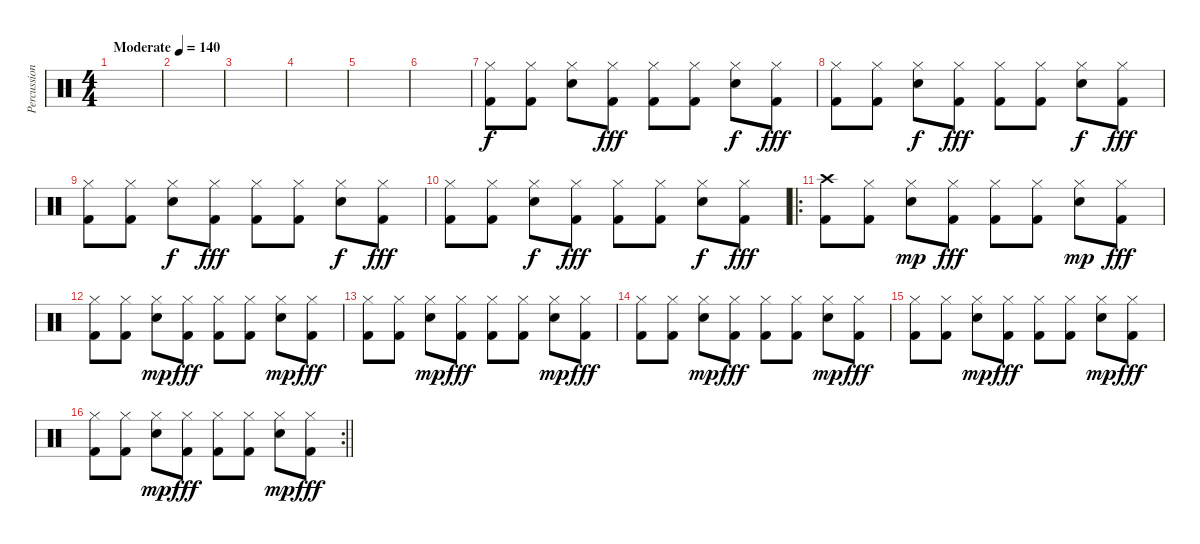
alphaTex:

\track ("Percussioni" "Percussion") {instrument percussion}
\staff {score}
\articulation defaults
\ts (4 4)
\tempo (140 "Moderate")
\clef neutral
\ks c
|
|
|
|
|
|
("Hi-Hat (closed)" "Kick (hit) 2").8 ("Hi-Hat (closed)" "Kick (hit) 2").8 ("Hi-Hat (closed)" "Snare (hit) 2").8{dy f} ("Hi-Hat (closed)" "Kick (hit) 2").8{dy fff} ("Hi-Hat (closed)" "Kick (hit) 2").8 ("Hi-Hat (closed)" "Kick (hit) 2").8 ("Hi-Hat (closed)" "Snare (hit) 2").8{dy f} ("Hi-Hat (closed)" "Kick (hit) 2").8{dy fff} |
("Hi-Hat (closed)" "Kick (hit) 2").8 ("Hi-Hat (closed)" "Kick (hit) 2").8 ("Hi-Hat (closed)" "Snare (hit) 2").8{dy f} ("Hi-Hat (closed)" "Kick (hit) 2").8{dy fff} ("Hi-Hat (closed)" "Kick (hit) 2").8 ("Hi-Hat (closed)" "Kick (hit) 2").8 ("Hi-Hat (closed)" "Snare (hit) 2").8{dy f} ("Hi-Hat (closed)" "Kick (hit) 2").8{dy fff} |
("Hi-Hat (closed)" "Kick (hit) 2").8 ("Hi-Hat (closed)" "Kick (hit) 2").8 ("Hi-Hat (closed)" "Snare (hit) 2").8{dy f} ("Hi-Hat (closed)" "Kick (hit) 2").8{dy fff} ("Hi-Hat (closed)" "Kick (hit) 2").8 ("Hi-Hat (closed)" "Kick (hit) 2").8 ("Hi-Hat (closed)" "Snare (hit) 2").8{dy f} ("Hi-Hat (closed)" "Kick (hit) 2").8{dy fff} |
("Hi-Hat (closed)" "Kick (hit) 2").8{volume 13} ("Hi-Hat (closed)" "Kick (hit) 2").8 ("Hi-Hat (closed)" "Snare (hit) 2").8{dy f} ("Hi-Hat (closed)" "Kick (hit) 2").8{dy fff} ("Hi-Hat (closed)" "Kick (hit) 2").8 ("Hi-Hat (closed)" "Kick (hit) 2").8 ("Hi-Hat (closed)" "Snare (hit) 2").8{dy f} ("Hi-Hat (closed)" "Kick (hit) 2").8{dy fff} |
\ro
("Crash high (hit)" "Kick (hit) 2").8{volume 15} ("Hi-Hat (closed)" "Kick (hit) 2").8 ("Hi-Hat (closed)" "Snare (hit) 2").8{dy mp} ("Hi-Hat (closed)" "Kick (hit) 2").8{dy fff} ("Hi-Hat (closed)" "Kick (hit) 2").8 ("Hi-Hat (closed)" "Kick (hit) 2").8 ("Hi-Hat (closed)" "Snare (hit) 2").8{dy mp} ("Hi-Hat (closed)" "Kick (hit) 2").8{dy fff} |
("Hi-Hat (closed)" "Kick (hit) 2").8 ("Hi-Hat (closed)" "Kick (hit) 2").8 ("Hi-Hat (closed)" "Snare (hit) 2").8{dy mp} ("Hi-Hat (closed)" "Kick (hit) 2").8{dy fff} ("Hi-Hat (closed)" "Kick (hit) 2").8 ("Hi-Hat (closed)" "Kick (hit) 2").8 ("Hi-Hat (closed)" "Snare (hit) 2").8{dy mp} ("Hi-Hat (closed)" "Kick (hit) 2").8{dy fff} |
("Hi-Hat (closed)" "Kick (hit) 2").8 ("Hi-Hat (closed)" "Kick (hit) 2").8 ("Hi-Hat (closed)" "Snare (hit) 2").8{dy mp} ("Hi-Hat (closed)" "Kick (hit) 2").8{dy fff} ("Hi-Hat (closed)" "Kick (hit) 2").8 ("Hi-Hat (closed)" "Kick (hit) 2").8 ("Hi-Hat (closed)" "Snare (hit) 2").8{dy mp} ("Hi-Hat (closed)" "Kick (hit) 2").8{dy fff} |
("Hi-Hat (closed)" "Kick (hit) 2").8 ("Hi-Hat (closed)" "Kick (hit) 2").8 ("Hi-Hat (closed)" "Snare (hit) 2").8{dy mp} ("Hi-Hat (closed)" "Kick (hit) 2").8{dy fff} ("Hi-Hat (closed)" "Kick (hit) 2").8 ("Hi-Hat (closed)" "Kick (hit) 2").8 ("Hi-Hat (closed)" "Snare (hit) 2").8{dy mp} ("Hi-Hat (closed)" "Kick (hit) 2").8{dy fff} |
("Hi-Hat (closed)" "Kick (hit) 2").8 ("Hi-Hat (closed)" "Kick (hit) 2").8 ("Hi-Hat (closed)" "Snare (hit) 2").8{dy mp} ("Hi-Hat (closed)" "Kick (hit) 2").8{dy fff} ("Hi-Hat (closed)" "Kick (hit) 2").8 ("Hi-Hat (closed)" "Kick (hit) 2").8 ("Hi-Hat (closed)" "Snare (hit) 2").8{dy mp} ("Hi-Hat (closed)" "Kick (hit) 2").8{dy fff} |
\rc 2
\barLineRight lightlight
("Hi-Hat (closed)" "Kick (hit) 2").8 ("Hi-Hat (closed)" "Kick (hit) 2").8 ("Hi-Hat (closed)" "Snare (hit) 2").8{dy mp} ("Hi-Hat (closed)" "Kick (hit) 2").8{dy fff} ("Hi-Hat (closed)" "Kick (hit) 2").8 ("Hi-Hat (closed)" "Kick (hit) 2").8 ("Hi-Hat (closed)" "Snare (hit) 2").8{dy mp} ("Hi-Hat (closed)" "Kick (hit) 2").8{dy fff}
